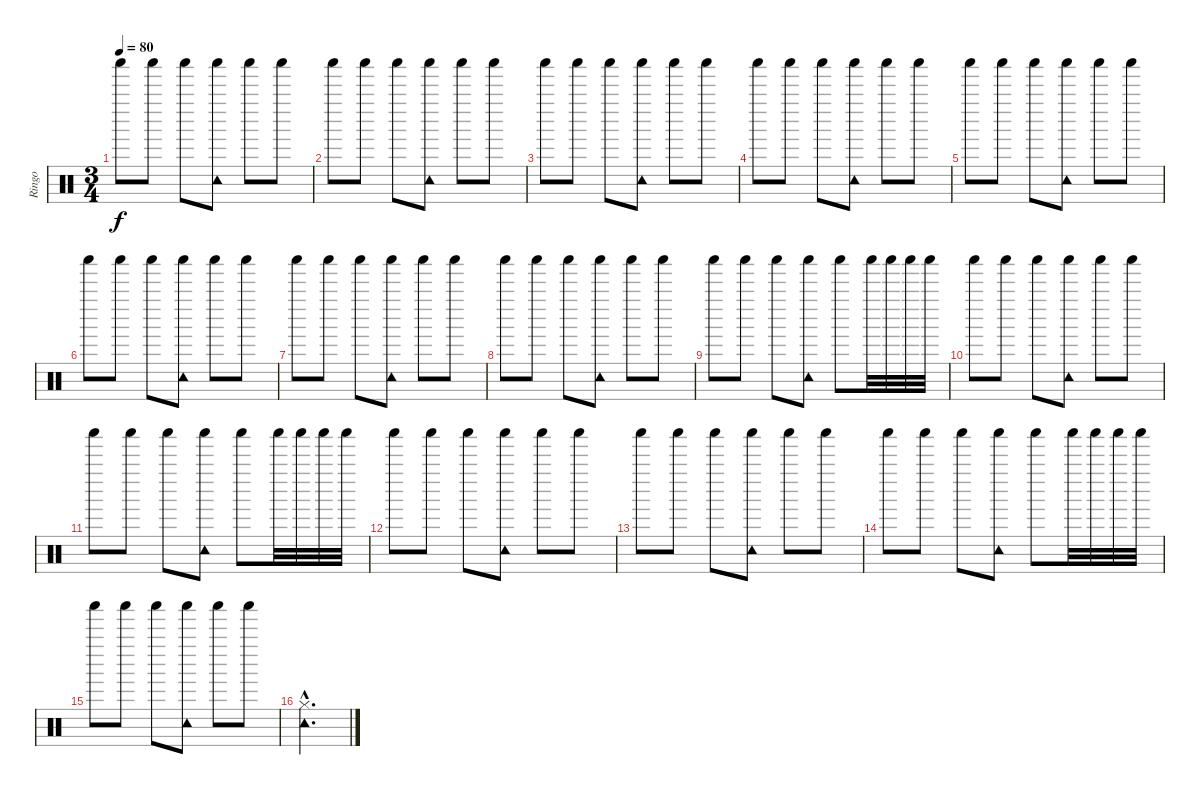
\track ("Ringo" "Ringo") {instrument percussion}
\staff {score}
\articulation defaults
\ts (3 4)
\tempo 80
\clef neutral
\ks c "Shaker (hit)".8{dy f} "Shaker (hit)".8 "Shaker (hit)".8
("Tambourine (hit)" "Shaker (hit)").8 "Shaker (hit)".8 "Shaker (hit)".8 |
"Shaker (hit)".8 "Shaker (hit)".8 "Shaker (hit)".8 ("Tambourine (hit)" "Shaker (hit)").8 "Shaker (hit)".8 "Shaker (hit)".8 |
"Shaker (hit)".8 "Shaker (hit)".8 "Shaker (hit)".8 ("Tambourine (hit)" "Shaker (hit)").8 "Shaker (hit)".8 "Shaker (hit)".8 |
"Shaker (hit)".8 "Shaker (hit)".8 "Shaker (hit)".8 ("Tambourine (hit)" "Shaker (hit)").8 "Shaker (hit)".8 "Shaker (hit)".8 |
"Shaker (hit)".8 "Shaker (hit)".8 "Shaker (hit)".8 ("Tambourine (hit)" "Shaker (hit)").8 "Shaker (hit)".8 "Shaker (hit)".8 |
"Shaker (hit)".8 "Shaker (hit)".8 "Shaker (hit)".8 ("Tambourine (hit)" "Shaker (hit)").8 "Shaker (hit)".8 "Shaker (hit)".8 |
"Shaker (hit)".8 "Shaker (hit)".8 "Shaker (hit)".8 ("Tambourine (hit)" "Shaker (hit)").8 "Shaker (hit)".8 "Shaker (hit)".8 |
"Shaker (hit)".8 "Shaker (hit)".8 "Shaker (hit)".8 ("Tambourine (hit)" "Shaker (hit)").8 "Shaker (hit)".8 "Shaker (hit)".8 |
"Shaker (hit)".8 "Shaker (hit)".8 "Shaker (hit)".8 ("Tambourine (hit)" "Shaker (hit)").8 "Shaker (hit)".8 "Shaker (hit)".32 "Shaker (hit)".32 "Shaker (hit)".32 "Shaker (hit)".32 |
"Shaker (hit)".8 "Shaker (hit)".8 "Shaker (hit)".8 ("Tambourine (hit)" "Shaker (hit)").8 "Shaker (hit)".8 "Shaker (hit)".8 |
"Shaker (hit)".8 "Shaker (hit)".8 "Shaker (hit)".8 ("Tambourine (hit)" "Shaker (hit)").8 "Shaker (hit)".8 "Shaker (hit)".32 "Shaker (hit)".32 "Shaker (hit)".32 "Shaker (hit)".32 |
"Shaker (hit)".8 "Shaker (hit)".8 "Shaker (hit)".8 ("Tambourine (hit)" "Shaker (hit)").8 "Shaker (hit)".8 "Shaker (hit)".8 |
"Shaker (hit)".8 "Shaker (hit)".8 "Shaker (hit)".8 ("Tambourine (hit)" "Shaker (hit)").8 "Shaker (hit)".8 "Shaker (hit)".8 |
"Shaker (hit)".8 "Shaker (hit)".8 "Shaker (hit)".8 ("Tambourine (hit)" "Shaker (hit)").8 "Shaker (hit)".8 "Shaker (hit)".32 "Shaker (hit)".32 "Shaker (hit)".32 "Shaker (hit)".32 |
"Shaker (hit)".8 "Shaker (hit)".8 "Shaker (hit)".8 ("Tambourine (hit)" "Shaker (hit)").8 "Shaker (hit)".8 "Shaker (hit)".8 |
("Tambourine (hit)"{hac} "Hi-Hat (closed)"{hac}).2{d}
